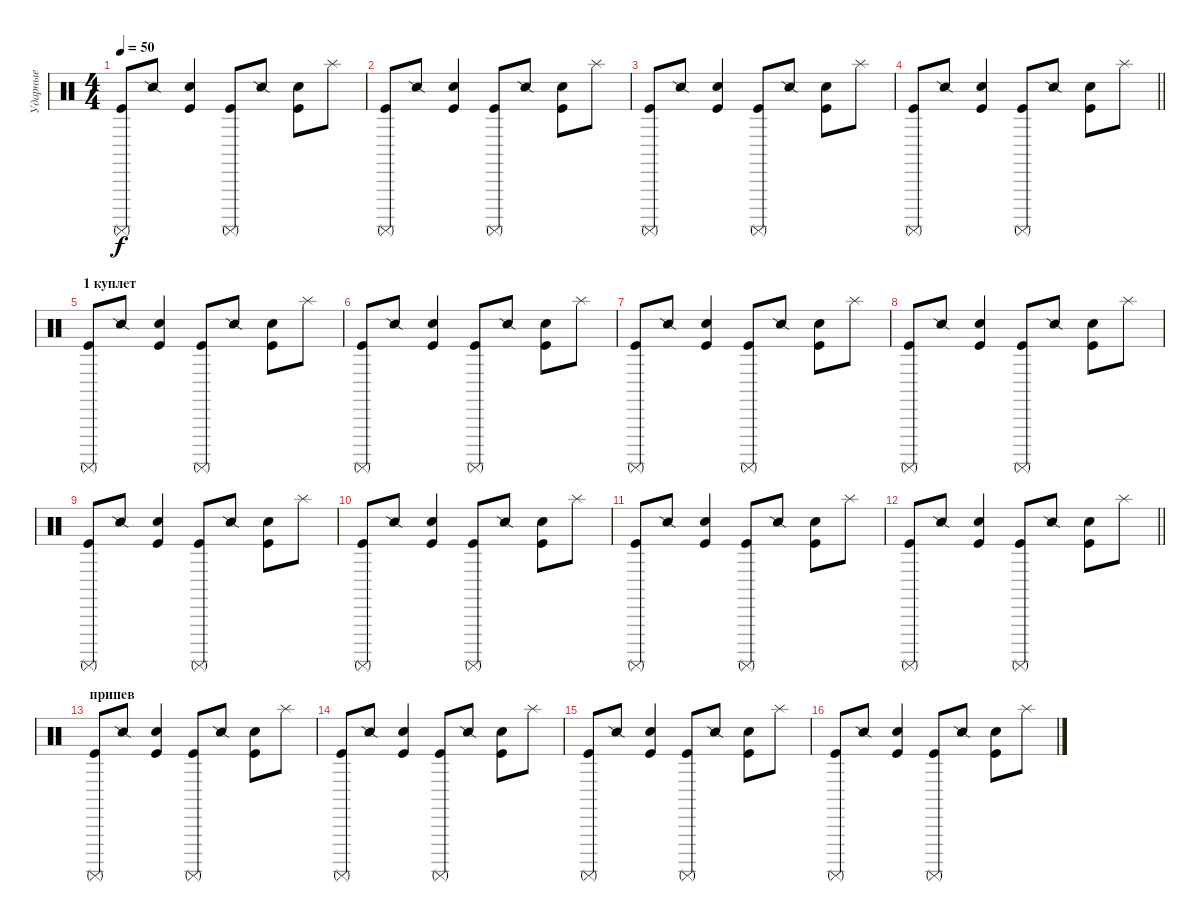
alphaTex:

\track ("Ударные" "Ударные") {instrument percussion}
\staff {score}
\articulation defaults
\ts (4 4)
\tempo 50
\clef neutral
\ks c
("Kick (hit)" "Surdo (mute)").8{dy f} "Snare (side stick) 2".8 ("Snare (hit) 2" "Kick (hit)").4 ("Kick (hit)" "Surdo (mute)").8 "Snare (side stick) 2".8 ("Snare (hit) 2" "Kick (hit)").8 "Splash (hit)".8 |
("Kick (hit)" "Surdo (mute)").8 "Snare (side stick) 2".8 ("Snare (hit) 2" "Kick (hit)").4 ("Kick (hit)" "Surdo (mute)").8 "Snare (side stick) 2".8 ("Snare (hit) 2" "Kick (hit)").8 "Splash (hit)".8 |
("Kick (hit)" "Surdo (mute)").8 "Snare (side stick) 2".8 ("Snare (hit) 2" "Kick (hit)").4 ("Kick (hit)" "Surdo (mute)").8 "Snare (side stick) 2".8 ("Snare (hit) 2" "Kick (hit)").8 "Splash (hit)".8 |
\barLineRight lightlight
("Kick (hit)" "Surdo (mute)").8 "Snare (side stick) 2".8 ("Snare (hit) 2" "Kick (hit)").4 ("Kick (hit)" "Surdo (mute)").8 "Snare (side stick) 2".8 ("Snare (hit) 2" "Kick (hit)").8 "Splash (hit)".8 |
\section ("" "1 куплет")
("Kick (hit)" "Surdo (mute)").8 "Snare (side stick) 2".8 ("Snare (hit) 2" "Kick (hit)").4 ("Kick (hit)" "Surdo (mute)").8 "Snare (side stick) 2".8 ("Snare (hit) 2" "Kick (hit)").8 "Splash (hit)".8 |
("Kick (hit)" "Surdo (mute)").8 "Snare (side stick) 2".8 ("Snare (hit) 2" "Kick (hit)").4 ("Kick (hit)" "Surdo (mute)").8 "Snare (side stick) 2".8 ("Snare (hit) 2" "Kick (hit)").8 "Splash (hit)".8 |
("Kick (hit)" "Surdo (mute)").8 "Snare (side stick) 2".8 ("Snare (hit) 2" "Kick (hit)").4 ("Kick (hit)" "Surdo (mute)").8 "Snare (side stick) 2".8 ("Snare (hit) 2" "Kick (hit)").8 "Splash (hit)".8 |
("Kick (hit)" "Surdo (mute)").8 "Snare (side stick) 2".8 ("Snare (hit) 2" "Kick (hit)").4 ("Kick (hit)" "Surdo (mute)").8 "Snare (side stick) 2".8 ("Snare (hit) 2" "Kick (hit)").8 "Splash (hit)".8 |
("Kick (hit)" "Surdo (mute)").8 "Snare (side stick) 2".8 ("Snare (hit) 2" "Kick (hit)").4 ("Kick (hit)" "Surdo (mute)").8 "Snare (side stick) 2".8 ("Snare (hit) 2" "Kick (hit)").8 "Splash (hit)".8 |
("Kick (hit)" "Surdo (mute)").8 "Snare (side stick) 2".8 ("Snare (hit) 2" "Kick (hit)").4 ("Kick (hit)" "Surdo (mute)").8 "Snare (side stick) 2".8 ("Snare (hit) 2" "Kick (hit)").8 "Splash (hit)".8 |
("Kick (hit)" "Surdo (mute)").8 "Snare (side stick) 2".8 ("Snare (hit) 2" "Kick (hit)").4 ("Kick (hit)" "Surdo (mute)").8 "Snare (side stick) 2".8 ("Snare (hit) 2" "Kick (hit)").8 "Splash (hit)".8 |
\barLineRight lightlight
("Kick (hit)" "Surdo (mute)").8 "Snare (side stick) 2".8 ("Snare (hit) 2" "Kick (hit)").4 ("Kick (hit)" "Surdo (mute)").8 "Snare (side stick) 2".8 ("Snare (hit) 2" "Kick (hit)").8 "Splash (hit)".8 |
\section ("" "припев")
("Kick (hit)" "Surdo (mute)").8 "Snare (side stick) 2".8 ("Snare (hit) 2" "Kick (hit)").4 ("Kick (hit)" "Surdo (mute)").8 "Snare (side stick) 2".8 ("Snare (hit) 2" "Kick (hit)").8 "Splash (hit)".8 |
("Kick (hit)" "Surdo (mute)").8 "Snare (side stick) 2".8 ("Snare (hit) 2" "Kick (hit)").4 ("Kick (hit)" "Surdo (mute)").8 "Snare (side stick) 2".8 ("Snare (hit) 2" "Kick (hit)").8 "Splash (hit)".8 |
("Kick (hit)" "Surdo (mute)").8 "Snare (side stick) 2".8 ("Snare (hit) 2" "Kick (hit)").4 ("Kick (hit)" "Surdo (mute)").8 "Snare (side stick) 2".8 ("Snare (hit) 2" "Kick (hit)").8 "Splash (hit)".8 |
("Kick (hit)" "Surdo (mute)").8 "Snare (side stick) 2".8 ("Snare (hit) 2" "Kick (hit)").4 ("Kick (hit)" "Surdo (mute)").8 "Snare (side stick) 2".8 ("Snare (hit) 2" "Kick (hit)").8 "Splash (hit)".8
